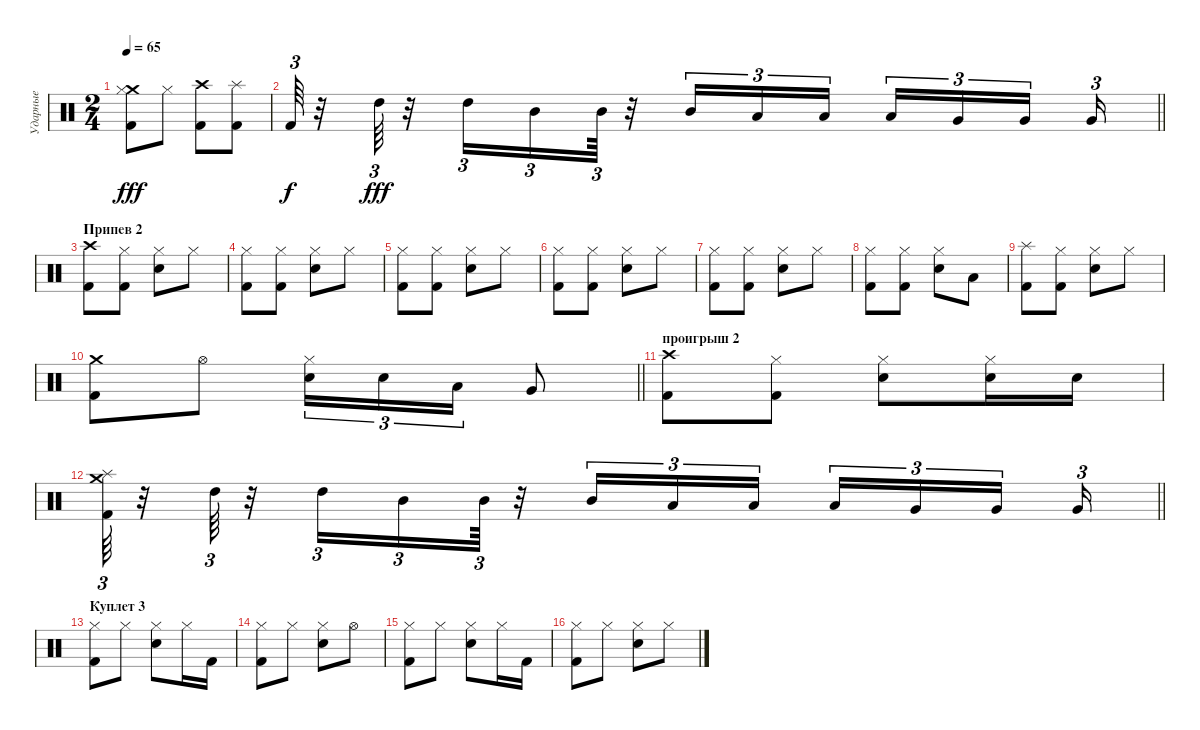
\track ("Ударные" "Ударные") {instrument percussion}
\staff
\articulation defaults
\ts (2 4)
\tempo 65
\clef neutral
\ks c
("Kick (hit) 2" "Crash medium (hit)" "Hi-Hat (closed)").8{dy fff} "Hi-Hat (closed)".8 ("Kick (hit) 2" "Crash high (hit)").8 ("Kick (hit) 2" "Splash (hit)").8 |
\barLineRight lightlight "Kick (hit) 2".64{tu (3 2) dy f}
r.32 "High Tom (hit)".64{tu (3 2) dy fff} r.32 "High Tom (hit)".16{tu (3 2)} "Mid Tom (hit)".16{tu (3 2)} "Mid Tom (hit)".64{tu (3 2)} r.32 "Mid Tom (hit)".16{tu (3 2)} "Low Tom (hit)".16{tu (3 2)} "Low Tom (hit)".16{tu (3 2) beam splitsecondary} "Low Tom (hit)".16{tu (3 2)} "Very Low Tom (hit)".16{tu (3 2)} "Very Low Tom (hit)".16{tu (3 2) beam splitsecondary} "Very Low Tom (hit)".16{tu (3 2)} |
\section ("" "Припев 2")
("Kick (hit) 2" "Crash high (hit)").8 ("Kick (hit) 2" "Hi-Hat (closed)").8 ("Snare (hit) 2" "Hi-Hat (closed)").8 "Hi-Hat (closed)".8 |
("Kick (hit) 2" "Hi-Hat (closed)").8 ("Kick (hit) 2" "Hi-Hat (closed)").8 ("Snare (hit) 2" "Hi-Hat (closed)").8 "Hi-Hat (closed)".8 |
("Kick (hit) 2" "Hi-Hat (closed)").8 ("Kick (hit) 2" "Hi-Hat (closed)").8 ("Snare (hit) 2" "Hi-Hat (closed)").8 "Hi-Hat (closed)".8 |
("Kick (hit) 2" "Hi-Hat (closed)").8 ("Kick (hit) 2" "Hi-Hat (closed)").8 ("Snare (hit) 2" "Hi-Hat (closed)").8 "Hi-Hat (closed)".8 |
("Kick (hit) 2" "Hi-Hat (closed)").8 ("Kick (hit) 2" "Hi-Hat (closed)").8 ("Snare (hit) 2" "Hi-Hat (closed)").8 "Hi-Hat (closed)".8 |
("Kick (hit) 2" "Hi-Hat (closed)").8 ("Kick (hit) 2" "Hi-Hat (closed)").8 ("Snare (hit) 2" "Hi-Hat (closed)").8 "Low Tom (hit)".8 |
("Kick (hit) 2" "Splash (hit)").8 ("Kick (hit) 2" "Hi-Hat (closed)").8 ("Snare (hit) 2" "Hi-Hat (closed)").8 "Hi-Hat (closed)".8 |
\barLineRight lightlight
("Kick (hit) 2" "Crash medium (hit)").8 "Hi-Hat (open)".8 ("Snare (hit) 2" "Hi-Hat (closed)").16{tu (3 2)} "Snare (hit) 2".16{tu (3 2)} "Low Tom (hit)".16{tu (3 2)} "Very Low Tom (hit)".8 |
\section ("" "проигрыш 2")
("Kick (hit) 2" "Crash high (hit)").8 ("Kick (hit) 2" "Hi-Hat (closed)").8 ("Snare (hit) 2" "Hi-Hat (closed)").8 ("Snare (hit) 2" "Hi-Hat (closed)").16 "Snare (hit) 2".16 |
\barLineRight lightlight
("Splash (hit)" "Kick (hit) 2" "Crash medium (hit)").64{tu (3 2)} r.32 "High Tom (hit)".64{tu (3 2)} r.32 "High Tom (hit)".16{tu (3 2)} "Mid Tom (hit)".16{tu (3 2)} "Mid Tom (hit)".64{tu (3 2)} r.32 "Mid Tom (hit)".16{tu (3 2)} "Low Tom (hit)".16{tu (3 2)} "Low Tom (hit)".16{tu (3 2) beam splitsecondary} "Low Tom (hit)".16{tu (3 2)} "Very Low Tom (hit)".16{tu (3 2)} "Very Low Tom (hit)".16{tu (3 2) beam splitsecondary} "Very Low Tom (hit)".16{tu (3 2)} |
\section ("" "Куплет 3")
("Kick (hit) 2" "Hi-Hat (closed)").8 "Hi-Hat (closed)".8 ("Snare (hit) 2" "Hi-Hat (closed)").8 "Hi-Hat (closed)".16 "Kick (hit) 2".16 |
("Kick (hit) 2" "Hi-Hat (closed)").8 "Hi-Hat (closed)".8 ("Snare (hit) 2" "Hi-Hat (closed)").8 "Hi-Hat (open)".8 |
("Kick (hit) 2" "Hi-Hat (closed)").8 "Hi-Hat (closed)".8 ("Snare (hit) 2" "Hi-Hat (closed)").8 "Hi-Hat (closed)".16 "Kick (hit) 2".16 |
("Kick (hit) 2" "Hi-Hat (closed)").8 "Hi-Hat (closed)".8 ("Snare (hit) 2" "Hi-Hat (closed)").8 "Hi-Hat (closed)".8
